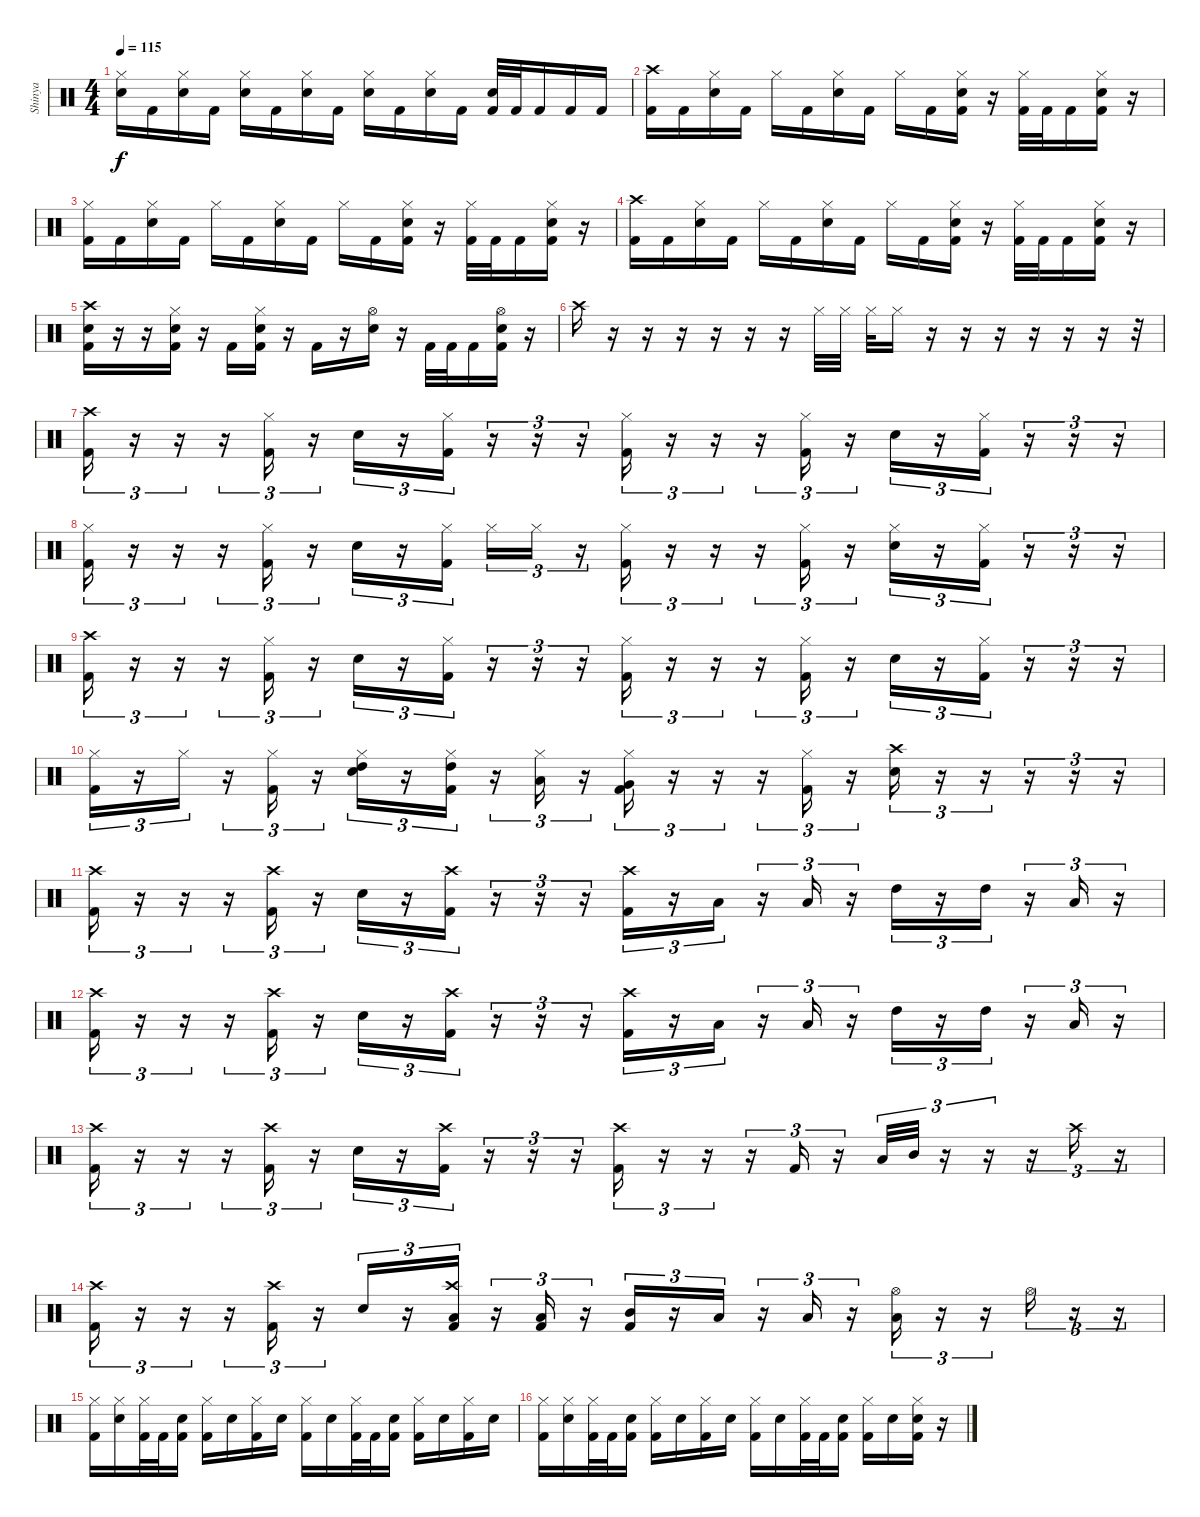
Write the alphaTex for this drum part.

\track ("Shinya" "Shinya") {instrument percussion}
\staff {score}
\articulation defaults
\ts (4 4)
\tempo 115
\clef neutral
\ks c
("Hi-Hat (closed)" "Electric Snare (hit)").16{dy f} "Kick (hit) 2".16 ("Hi-Hat (closed)" "Electric Snare (hit)").16 "Kick (hit) 2".16 ("Hi-Hat (closed)" "Electric Snare (hit)").16 "Kick (hit) 2".16 ("Hi-Hat (closed)" "Electric Snare (hit)").16 "Kick (hit) 2".16 ("Hi-Hat (closed)" "Electric Snare (hit)").16 "Kick (hit) 2".16 ("Hi-Hat (closed)" "Electric Snare (hit)").16 "Kick (hit) 2".16 ("Electric Snare (hit)" "Kick (hit) 2").32 "Kick (hit) 2".32 "Kick (hit) 2".16 "Kick (hit) 2".16 "Kick (hit) 2".16 |
("Crash high (hit)" "Kick (hit) 2").16 "Kick (hit) 2".16 ("Hi-Hat (closed)" "Electric Snare (hit)").16 "Kick (hit) 2".16 "Hi-Hat (closed)".16 "Kick (hit) 2".16 ("Hi-Hat (closed)" "Electric Snare (hit)").16 "Kick (hit) 2".16 "Hi-Hat (closed)".16 "Kick (hit) 2".16 ("Hi-Hat (closed)" "Electric Snare (hit)" "Kick (hit) 2").16 r.16 ("Hi-Hat (closed)" "Kick (hit) 2").32 "Kick (hit) 2".32 "Kick (hit) 2".16 ("Hi-Hat (closed)" "Electric Snare (hit)" "Kick (hit) 2").16 r.16 |
("Hi-Hat (closed)" "Kick (hit) 2").16 "Kick (hit) 2".16 ("Hi-Hat (closed)" "Electric Snare (hit)").16 "Kick (hit) 2".16 "Hi-Hat (closed)".16 "Kick (hit) 2".16 ("Hi-Hat (closed)" "Electric Snare (hit)").16 "Kick (hit) 2".16 "Hi-Hat (closed)".16 "Kick (hit) 2".16 ("Hi-Hat (closed)" "Electric Snare (hit)" "Kick (hit) 2").16 r.16 ("Hi-Hat (closed)" "Kick (hit) 2").32 "Kick (hit) 2".32 "Kick (hit) 2".16 ("Hi-Hat (closed)" "Electric Snare (hit)" "Kick (hit) 2").16 r.16 |
("Crash high (hit)" "Kick (hit) 2").16 "Kick (hit) 2".16 ("Hi-Hat (closed)" "Electric Snare (hit)").16 "Kick (hit) 2".16 "Hi-Hat (closed)".16 "Kick (hit) 2".16 ("Hi-Hat (closed)" "Electric Snare (hit)").16 "Kick (hit) 2".16 "Hi-Hat (closed)".16 "Kick (hit) 2".16 ("Hi-Hat (closed)" "Electric Snare (hit)" "Kick (hit) 2").16 r.16 ("Hi-Hat (closed)" "Kick (hit) 2").32 "Kick (hit) 2".32 "Kick (hit) 2".16 ("Hi-Hat (closed)" "Electric Snare (hit)" "Kick (hit) 2").16 r.16 |
("Crash high (hit)" "Electric Snare (hit)" "Kick (hit) 2").16 r.16 r.16 ("Hi-Hat (closed)" "Electric Snare (hit)" "Kick (hit) 2").16 r.16 "Kick (hit) 2".16 ("Hi-Hat (closed)" "Electric Snare (hit)" "Kick (hit) 2").16 r.16 "Kick (hit) 2".16 r.16 ("Hi-Hat (open)" "Electric Snare (hit)").16 r.16 "Kick (hit) 2".32 "Kick (hit) 2".32 "Kick (hit) 2".16 ("Hi-Hat (open)" "Electric Snare (hit)" "Kick (hit) 2").16 r.16 |
"Crash high (hit)".16 r.16 r.16 r.16 r.16 r.16 r.16 "Hi-Hat (closed)".32 "Hi-Hat (closed)".32 "Hi-Hat (closed)".32 "Hi-Hat (closed)".16 r.16 r.16 r.16 r.16 r.16 r.16 r.32 |
("Crash high (hit)" "Kick (hit) 2").16{tu (3 2)} r.16{tu (3 2)} r.16{tu (3 2)} r.16{tu (3 2)} ("Hi-Hat (closed)" "Kick (hit) 2").16{tu (3 2)} r.16{tu (3 2)} "Electric Snare (hit)".16{tu (3 2)} r.16{tu (3 2)} ("Hi-Hat (closed)" "Kick (hit) 2").16{tu (3 2)} r.16{tu (3 2)} r.16{tu (3 2)} r.16{tu (3 2)} ("Hi-Hat (closed)" "Kick (hit) 2").16{tu (3 2)} r.16{tu (3 2)} r.16{tu (3 2)} r.16{tu (3 2)} ("Hi-Hat (closed)" "Kick (hit) 2").16{tu (3 2)} r.16{tu (3 2)} "Electric Snare (hit)".16{tu (3 2)} r.16{tu (3 2)} ("Hi-Hat (closed)" "Kick (hit) 2").16{tu (3 2)} r.16{tu (3 2)} r.16{tu (3 2)} r.16{tu (3 2)} |
("Hi-Hat (closed)" "Kick (hit) 2").16{tu (3 2)} r.16{tu (3 2)} r.16{tu (3 2)} r.16{tu (3 2)} ("Hi-Hat (closed)" "Kick (hit) 2").16{tu (3 2)} r.16{tu (3 2)} "Electric Snare (hit)".16{tu (3 2)} r.16{tu (3 2)} ("Hi-Hat (closed)" "Kick (hit) 2").16{tu (3 2) beam splitsecondary} "Hi-Hat (closed)".16{tu (3 2)} "Hi-Hat (closed)".16{tu (3 2)} r.16{tu (3 2)} ("Hi-Hat (closed)" "Kick (hit) 2").16{tu (3 2)} r.16{tu (3 2)} r.16{tu (3 2)} r.16{tu (3 2)} ("Hi-Hat (closed)" "Kick (hit) 2").16{tu (3 2)} r.16{tu (3 2)} ("Hi-Hat (closed)" "Electric Snare (hit)").16{tu (3 2)} r.16{tu (3 2)} ("Hi-Hat (closed)" "Kick (hit) 2").16{tu (3 2)} r.16{tu (3 2)} r.16{tu (3 2)} r.16{tu (3 2)} |
("Crash high (hit)" "Kick (hit) 2").16{tu (3 2)} r.16{tu (3 2)} r.16{tu (3 2)} r.16{tu (3 2)} ("Hi-Hat (closed)" "Kick (hit) 2").16{tu (3 2)} r.16{tu (3 2)} "Electric Snare (hit)".16{tu (3 2)} r.16{tu (3 2)} ("Hi-Hat (closed)" "Kick (hit) 2").16{tu (3 2)} r.16{tu (3 2)} r.16{tu (3 2)} r.16{tu (3 2)} ("Hi-Hat (closed)" "Kick (hit) 2").16{tu (3 2)} r.16{tu (3 2)} r.16{tu (3 2)} r.16{tu (3 2)} ("Hi-Hat (closed)" "Kick (hit) 2").16{tu (3 2)} r.16{tu (3 2)} "Electric Snare (hit)".16{tu (3 2)} r.16{tu (3 2)} ("Hi-Hat (closed)" "Kick (hit) 2").16{tu (3 2)} r.16{tu (3 2)} r.16{tu (3 2)} r.16{tu (3 2)} |
("Hi-Hat (closed)" "Kick (hit) 2").16{tu (3 2)} r.16{tu (3 2)} "Hi-Hat (closed)".16{tu (3 2)} r.16{tu (3 2)} ("Hi-Hat (closed)" "Kick (hit) 2").16{tu (3 2)} r.16{tu (3 2)} ("Hi-Hat (closed)" "Electric Snare (hit)" "High Tom (hit)").16{tu (3 2)} r.16{tu (3 2)} ("Hi-Hat (closed)" "High Tom (hit)" "Kick (hit) 2").16{tu (3 2)} r.16{tu (3 2)} ("Hi-Hat (closed)" "Low Tom (hit)").16{tu (3 2)} r.16{tu (3 2)} ("Hi-Hat (closed)" "Very Low Tom (hit)" "Kick (hit) 2").16{tu (3 2)} r.16{tu (3 2)} r.16{tu (3 2)} r.16{tu (3 2)} ("Hi-Hat (closed)" "Kick (hit) 2").16{tu (3 2)} r.16{tu (3 2)} ("Crash high (hit)" "Electric Snare (hit)").16{tu (3 2)} r.16{tu (3 2)} r.16{tu (3 2)} r.16{tu (3 2)} r.16{tu (3 2)} r.16{tu (3 2)} |
("Crash high (hit)" "Kick (hit) 2").16{tu (3 2)} r.16{tu (3 2)} r.16{tu (3 2)} r.16{tu (3 2)} ("Crash high (hit)" "Kick (hit) 2").16{tu (3 2)} r.16{tu (3 2)} "Electric Snare (hit)".16{tu (3 2)} r.16{tu (3 2)} ("Crash high (hit)" "Kick (hit) 2").16{tu (3 2)} r.16{tu (3 2)} r.16{tu (3 2)} r.16{tu (3 2)} ("Crash high (hit)" "Kick (hit) 2").16{tu (3 2)} r.16{tu (3 2)} "Low Tom (hit)".16{tu (3 2)} r.16{tu (3 2)} "Low Tom (hit)".16{tu (3 2)} r.16{tu (3 2)} "High Tom (hit)".16{tu (3 2)} r.16{tu (3 2)} "High Tom (hit)".16{tu (3 2)} r.16{tu (3 2)} "Low Tom (hit)".16{tu (3 2)} r.16{tu (3 2)} |
("Crash high (hit)" "Kick (hit) 2").16{tu (3 2)} r.16{tu (3 2)} r.16{tu (3 2)} r.16{tu (3 2)} ("Crash high (hit)" "Kick (hit) 2").16{tu (3 2)} r.16{tu (3 2)} "Electric Snare (hit)".16{tu (3 2)} r.16{tu (3 2)} ("Crash high (hit)" "Kick (hit) 2").16{tu (3 2)} r.16{tu (3 2)} r.16{tu (3 2)} r.16{tu (3 2)} ("Crash high (hit)" "Kick (hit) 2").16{tu (3 2)} r.16{tu (3 2)} "Low Tom (hit)".16{tu (3 2)} r.16{tu (3 2)} "Low Tom (hit)".16{tu (3 2)} r.16{tu (3 2)} "High Tom (hit)".16{tu (3 2)} r.16{tu (3 2)} "High Tom (hit)".16{tu (3 2)} r.16{tu (3 2)} "Low Tom (hit)".16{tu (3 2)} r.16{tu (3 2)} |
("Crash high (hit)" "Kick (hit) 2").16{tu (3 2)} r.16{tu (3 2)} r.16{tu (3 2)} r.16{tu (3 2)} ("Crash high (hit)" "Kick (hit) 2").16{tu (3 2)} r.16{tu (3 2)} "Electric Snare (hit)".16{tu (3 2)} r.16{tu (3 2)} ("Crash high (hit)" "Kick (hit) 2").16{tu (3 2)} r.16{tu (3 2)} r.16{tu (3 2)} r.16{tu (3 2)} ("Crash high (hit)" "Kick (hit) 2").16{tu (3 2)} r.16{tu (3 2)} r.16{tu (3 2)} r.16{tu (3 2)} "Kick (hit) 2".16{tu (3 2)} r.16{tu (3 2)} "Low Tom (hit)".32{tu (3 2)} "Mid Tom (hit)".32{tu (3 2)} r.16{tu (3 2)} r.16{tu (3 2)} r.16{tu (3 2)} "Crash high (hit)".16{tu (3 2)} r.16{tu (3 2)} |
("Crash high (hit)" "Kick (hit) 2").16{tu (3 2)} r.16{tu (3 2)} r.16{tu (3 2)} r.16{tu (3 2)} ("Crash high (hit)" "Kick (hit) 2").16{tu (3 2)} r.16{tu (3 2)} "Electric Snare (hit)".16{tu (3 2)} r.16{tu (3 2)} ("Crash high (hit)" "Low Tom (hit)" "Kick (hit) 2").16{tu (3 2)} r.16{tu (3 2)} ("Low Tom (hit)" "Kick (hit) 2").16{tu (3 2)} r.16{tu (3 2)} ("Mid Tom (hit)" "Kick (hit) 2").16{tu (3 2)} r.16{tu (3 2)} "Low Tom (hit)".16{tu (3 2)} r.16{tu (3 2)} "Low Tom (hit)".16{tu (3 2)} r.16{tu (3 2)} ("Hi-Hat (open)" "Low Floor Tom (hit)").16{tu (3 2)} r.16{tu (3 2)} r.16{tu (3 2)} "Hi-Hat (open)".16{tu (3 2)} r.16{tu (3 2)} r.16{tu (3 2)} |
("Hi-Hat (closed)" "Kick (hit) 2").16 ("Hi-Hat (closed)" "Electric Snare (hit)").16 ("Hi-Hat (closed)" "Kick (hit) 2").32 "Kick (hit) 2".32 ("Electric Snare (hit)" "Kick (hit) 2").16 ("Hi-Hat (closed)" "Kick (hit) 2").16 "Electric Snare (hit)".16 ("Hi-Hat (closed)" "Kick (hit) 2").16 "Electric Snare (hit)".16 ("Hi-Hat (closed)" "Kick (hit) 2").16 "Electric Snare (hit)".16 ("Hi-Hat (closed)" "Kick (hit) 2").32 "Kick (hit) 2".32 ("Electric Snare (hit)" "Kick (hit) 2").16 ("Hi-Hat (closed)" "Kick (hit) 2").16 "Electric Snare (hit)".16 ("Hi-Hat (closed)" "Kick (hit) 2").16 "Electric Snare (hit)".16 |
("Hi-Hat (closed)" "Kick (hit) 2").16 ("Hi-Hat (closed)" "Electric Snare (hit)").16 ("Hi-Hat (closed)" "Kick (hit) 2").32 "Kick (hit) 2".32 ("Electric Snare (hit)" "Kick (hit) 2").16 ("Hi-Hat (closed)" "Kick (hit) 2").16 "Electric Snare (hit)".16 ("Hi-Hat (closed)" "Kick (hit) 2").16 "Electric Snare (hit)".16 ("Hi-Hat (closed)" "Kick (hit) 2").16 "Electric Snare (hit)".16 ("Hi-Hat (closed)" "Kick (hit) 2").32 "Kick (hit) 2".32 ("Electric Snare (hit)" "Kick (hit) 2").16 ("Hi-Hat (closed)" "Kick (hit) 2").16 "Electric Snare (hit)".16 ("Hi-Hat (closed)" "Electric Snare (hit)" "Kick (hit) 2").16 r.16
